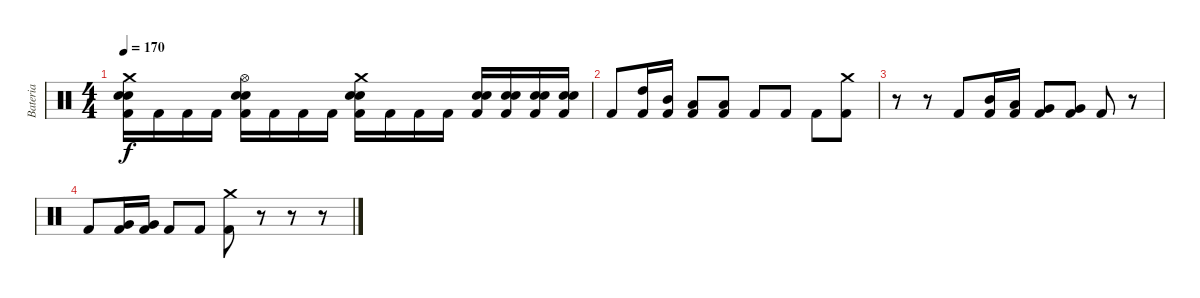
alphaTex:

\track ("Bateria" "Bateria") {instrument percussion}
\staff {score}
\articulation defaults
\ts (4 4)
\tempo 170
\clef neutral
\ks c
("Crash medium (hit)" "Electric Snare (hit)" "Snare (hit) 2" "Kick (hit) 2").16{dy f} "Kick (hit) 2".16 "Kick (hit) 2".16 "Kick (hit) 2".16 ("Hi-Hat (open)" "Electric Snare (hit)" "Snare (hit) 2" "Kick (hit) 2").16 "Kick (hit) 2".16 "Kick (hit) 2".16 "Kick (hit) 2".16 ("Crash medium (hit)" "Electric Snare (hit)" "Snare (hit) 2" "Kick (hit) 2").16 "Kick (hit) 2".16 "Kick (hit) 2".16 "Kick (hit) 2".16 ("Electric Snare (hit)" "Snare (hit) 2" "Kick (hit) 2").16 ("Electric Snare (hit)" "Snare (hit) 2" "Kick (hit) 2").16 ("Electric Snare (hit)" "Snare (hit) 2" "Kick (hit) 2").16 ("Electric Snare (hit)" "Snare (hit) 2" "Kick (hit) 2").16 |
"Kick (hit) 2".8 ("High Tom (hit)" "Kick (hit) 2").16 ("Mid Tom (hit)" "Kick (hit) 2").16 ("Low Tom (hit)" "Kick (hit) 2").8 ("Low Tom (hit)" "Kick (hit) 2").8 "Kick (hit) 2".8 "Kick (hit) 2".8 "Kick (hit) 2".8 ("Crash medium (hit)" "Kick (hit) 2").8 |
r.8 r.8 "Kick (hit) 2".8 ("Mid Tom (hit)" "Kick (hit) 2").16 ("Low Tom (hit)" "Kick (hit) 2").16 ("Very Low Tom (hit)" "Kick (hit) 2").8 ("Very Low Tom (hit)" "Kick (hit) 2").8 "Kick (hit) 2".8 r.8 |
"Kick (hit) 2".8 ("Very Low Tom (hit)" "Kick (hit) 2").16 ("Very Low Tom (hit)" "Kick (hit) 2").16 "Kick (hit) 2".8 "Kick (hit) 2".8 ("Crash medium (hit)" "Kick (hit) 2").8 r.8 r.8 r.8
